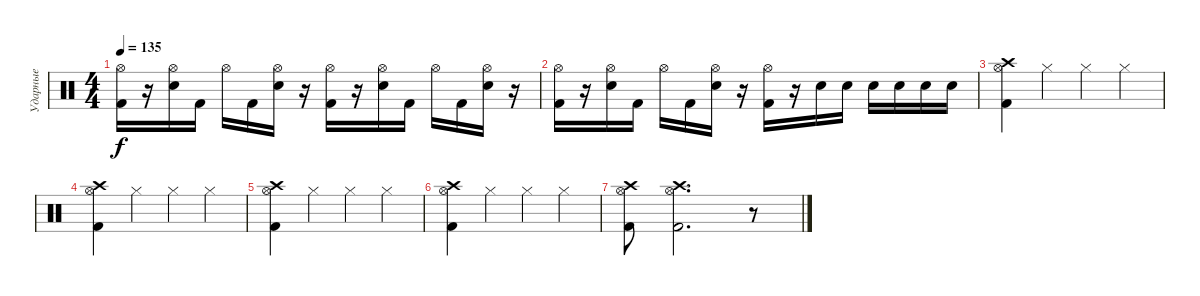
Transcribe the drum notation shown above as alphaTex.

\track ("Ударные" "Ударные") {instrument percussion}
\staff {score}
\articulation defaults
\ts (4 4)
\tempo 135
\clef neutral
\ks c
("Hi-Hat (open)" "Kick (hit) 2").16{dy f} r.16 ("Hi-Hat (open)" "Electric Snare (hit)").16 "Kick (hit) 2".16 "Hi-Hat (open)".16 "Kick (hit) 2".16 ("Hi-Hat (open)" "Electric Snare (hit)").16 r.16 ("Hi-Hat (open)" "Kick (hit) 2").16 r.16 ("Hi-Hat (open)" "Electric Snare (hit)").16 "Kick (hit) 2".16 "Hi-Hat (open)".16 "Kick (hit) 2".16 ("Hi-Hat (open)" "Electric Snare (hit)").16 r.16 |
("Hi-Hat (open)" "Kick (hit) 2").16 r.16 ("Hi-Hat (open)" "Electric Snare (hit)").16 "Kick (hit) 2".16 "Hi-Hat (open)".16 "Kick (hit) 2".16 ("Hi-Hat (open)" "Electric Snare (hit)").16 r.16 ("Hi-Hat (open)" "Kick (hit) 2").16 r.16 "Electric Snare (hit)".16 "Electric Snare (hit)".16 "Electric Snare (hit)".16 "Electric Snare (hit)".16 "Electric Snare (hit)".16 "Electric Snare (hit)".16 |
("Kick (hit) 2" "Crash high (hit)" "Hi-Hat (open)").4 "Hi-Hat (closed)".4 "Hi-Hat (closed)".4 "Hi-Hat (closed)".4 |
("Kick (hit) 2" "Crash high (hit)" "Hi-Hat (open)").4 "Hi-Hat (closed)".4 "Hi-Hat (closed)".4 "Hi-Hat (closed)".4 |
("Kick (hit) 2" "Crash high (hit)" "Hi-Hat (open)").4 "Hi-Hat (closed)".4 "Hi-Hat (closed)".4 "Hi-Hat (closed)".4 |
("Kick (hit) 2" "Crash high (hit)" "Hi-Hat (open)").4 "Hi-Hat (closed)".4 "Hi-Hat (closed)".4 "Hi-Hat (closed)".4 |
("Hi-Hat (open)" "Crash high (hit)" "Kick (hit) 2").8 ("Hi-Hat (open)" "Crash high (hit)" "Kick (hit) 2").2{d} r.8
